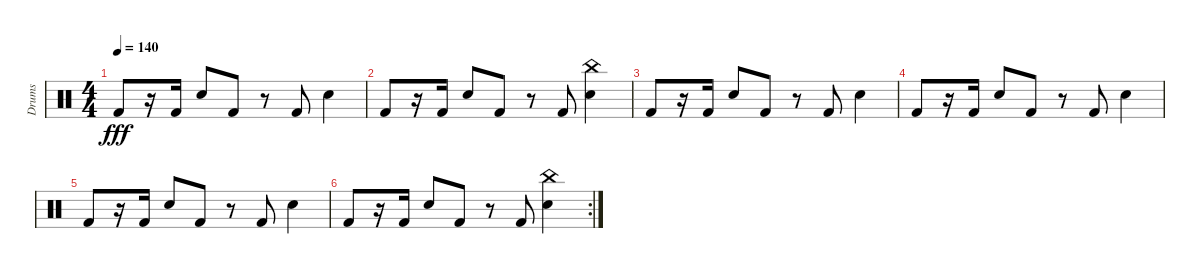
\track ("Drums" "Drums") {instrument percussion}
\staff {score}
\articulation defaults
\ts (4 4)
\tempo 140
\clef neutral
\ks c "Kick (hit) 2".8{dy fff}
r.16 "Kick (hit) 2".16 "Snare (hit) 2".8 "Kick (hit) 2".8 r.8 "Kick (hit) 2".8 "Snare (hit) 2".4 |
"Kick (hit) 2".8 r.16 "Kick (hit) 2".16 "Snare (hit) 2".8 "Kick (hit) 2".8 r.8 "Kick (hit) 2".8 ("China (hit)" "Snare (hit) 2").4 |
"Kick (hit) 2".8 r.16 "Kick (hit) 2".16 "Snare (hit) 2".8 "Kick (hit) 2".8 r.8 "Kick (hit) 2".8 "Snare (hit) 2".4 |
"Kick (hit) 2".8 r.16 "Kick (hit) 2".16 "Snare (hit) 2".8 "Kick (hit) 2".8 r.8 "Kick (hit) 2".8 "Snare (hit) 2".4 |
"Kick (hit) 2".8 r.16 "Kick (hit) 2".16 "Snare (hit) 2".8 "Kick (hit) 2".8 r.8 "Kick (hit) 2".8 "Snare (hit) 2".4 |
\rc 2 "Kick (hit) 2".8
r.16 "Kick (hit) 2".16 "Snare (hit) 2".8 "Kick (hit) 2".8 r.8 "Kick (hit) 2".8 ("China (hit)" "Snare (hit) 2").4
